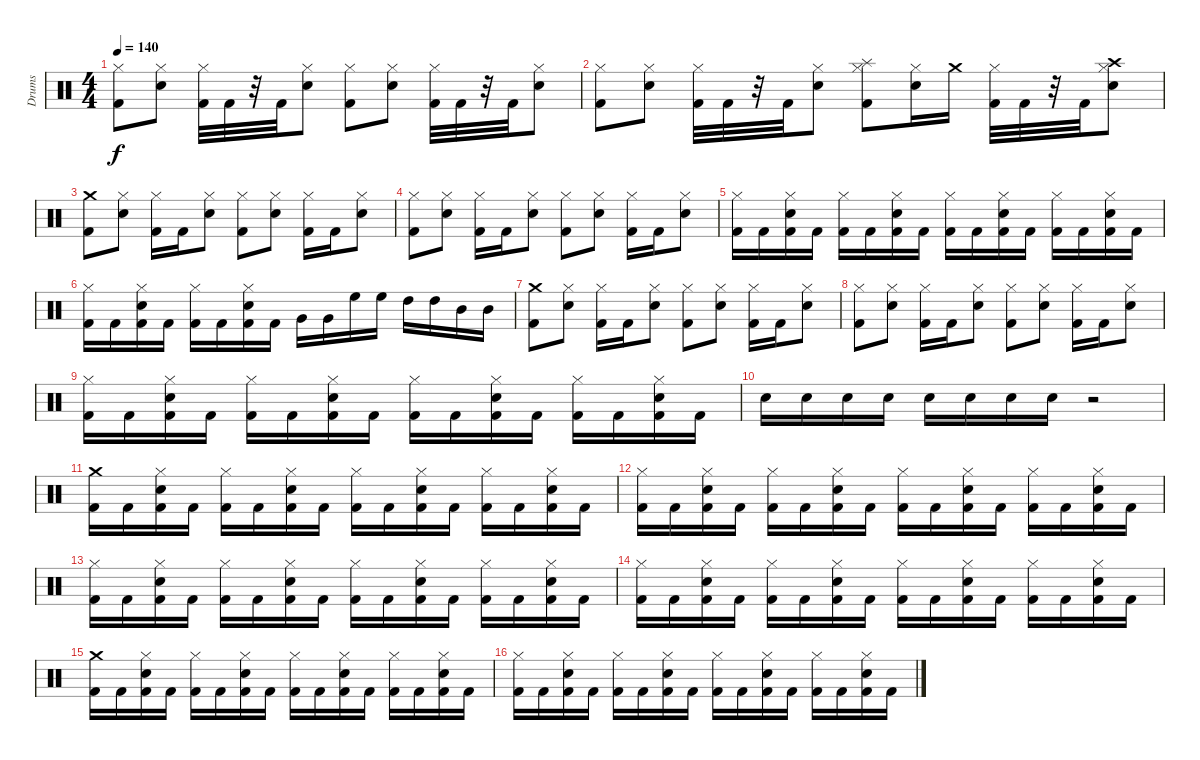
\track ("Drums" "Drums") {instrument percussion}
\staff {score}
\articulation defaults
\ts (4 4)
\tempo 140
\clef neutral
\ks c
("Hi-Hat (closed)" "Kick (hit) 2").8{dy f} ("Hi-Hat (closed)" "Electric Snare (hit)").8 ("Hi-Hat (closed)" "Kick (hit) 2").32 "Kick (hit) 2".32 r.32 "Kick (hit) 2".32 ("Hi-Hat (closed)" "Electric Snare (hit)").8 ("Hi-Hat (closed)" "Kick (hit) 2").8 ("Hi-Hat (closed)" "Electric Snare (hit)").8 ("Hi-Hat (closed)" "Kick (hit) 2").32 "Kick (hit) 2".32 r.32 "Kick (hit) 2".32 ("Hi-Hat (closed)" "Electric Snare (hit)").8 |
("Hi-Hat (closed)" "Kick (hit) 2").8 ("Hi-Hat (closed)" "Electric Snare (hit)").8 ("Hi-Hat (closed)" "Kick (hit) 2").32 "Kick (hit) 2".32 r.32 "Kick (hit) 2".32 ("Hi-Hat (closed)" "Electric Snare (hit)").8 ("Splash (hit)" "Hi-Hat (closed)" "Kick (hit) 2").8 ("Hi-Hat (closed)" "Electric Snare (hit)").16 "Crash medium (hit)".16 ("Hi-Hat (closed)" "Kick (hit) 2").32 "Kick (hit) 2".32 r.32 "Kick (hit) 2".32 ("Crash high (hit)" "Hi-Hat (closed)" "Electric Snare (hit)").8 |
("Crash medium (hit)" "Kick (hit) 2").8 ("Hi-Hat (closed)" "Electric Snare (hit)").8 ("Hi-Hat (closed)" "Kick (hit) 2").16 "Kick (hit) 2".16 ("Hi-Hat (closed)" "Electric Snare (hit)").8 ("Hi-Hat (closed)" "Kick (hit) 2").8 ("Hi-Hat (closed)" "Electric Snare (hit)").8 ("Hi-Hat (closed)" "Kick (hit) 2").16 "Kick (hit) 2".16 ("Hi-Hat (closed)" "Electric Snare (hit)").8 |
("Hi-Hat (closed)" "Kick (hit) 2").8 ("Hi-Hat (closed)" "Electric Snare (hit)").8 ("Hi-Hat (closed)" "Kick (hit) 2").16 "Kick (hit) 2".16 ("Hi-Hat (closed)" "Electric Snare (hit)").8 ("Hi-Hat (closed)" "Kick (hit) 2").8 ("Hi-Hat (closed)" "Electric Snare (hit)").8 ("Hi-Hat (closed)" "Kick (hit) 2").16 "Kick (hit) 2".16 ("Hi-Hat (closed)" "Electric Snare (hit)").8 |
("Hi-Hat (closed)" "Kick (hit) 2").16 "Kick (hit) 2".16 ("Hi-Hat (closed)" "Electric Snare (hit)" "Kick (hit) 2").16 "Kick (hit) 2".16 ("Hi-Hat (closed)" "Kick (hit) 2").16 "Kick (hit) 2".16 ("Hi-Hat (closed)" "Electric Snare (hit)" "Kick (hit) 2").16 "Kick (hit) 2".16 ("Hi-Hat (closed)" "Kick (hit) 2").16 "Kick (hit) 2".16 ("Hi-Hat (closed)" "Electric Snare (hit)" "Kick (hit) 2").16 "Kick (hit) 2".16 ("Hi-Hat (closed)" "Kick (hit) 2").16 "Kick (hit) 2".16 ("Hi-Hat (closed)" "Electric Snare (hit)" "Kick (hit) 2").16 "Kick (hit) 2".16 |
("Hi-Hat (closed)" "Kick (hit) 2").16 "Kick (hit) 2".16 ("Hi-Hat (closed)" "Electric Snare (hit)" "Kick (hit) 2").16 "Kick (hit) 2".16 ("Hi-Hat (closed)" "Kick (hit) 2").16 "Kick (hit) 2".16 ("Hi-Hat (closed)" "Electric Snare (hit)" "Kick (hit) 2").16 "Kick (hit) 2".16 "Very Low Tom (hit)".16 "Very Low Tom (hit)".16 "High Floor Tom (hit)".16 "High Floor Tom (hit)".16 "High Tom (hit)".16 "High Tom (hit)".16 "Mid Tom (hit)".16 "Mid Tom (hit)".16 |
("Crash medium (hit)" "Kick (hit) 2").8 ("Hi-Hat (closed)" "Electric Snare (hit)").8 ("Hi-Hat (closed)" "Kick (hit) 2").16 "Kick (hit) 2".16 ("Hi-Hat (closed)" "Electric Snare (hit)").8 ("Hi-Hat (closed)" "Kick (hit) 2").8 ("Hi-Hat (closed)" "Electric Snare (hit)").8 ("Hi-Hat (closed)" "Kick (hit) 2").16 "Kick (hit) 2".16 ("Hi-Hat (closed)" "Electric Snare (hit)").8 |
("Hi-Hat (closed)" "Kick (hit) 2").8 ("Hi-Hat (closed)" "Electric Snare (hit)").8 ("Hi-Hat (closed)" "Kick (hit) 2").16 "Kick (hit) 2".16 ("Hi-Hat (closed)" "Electric Snare (hit)").8 ("Hi-Hat (closed)" "Kick (hit) 2").8 ("Hi-Hat (closed)" "Electric Snare (hit)").8 ("Hi-Hat (closed)" "Kick (hit) 2").16 "Kick (hit) 2".16 ("Hi-Hat (closed)" "Electric Snare (hit)").8 |
("Hi-Hat (closed)" "Kick (hit) 2").16 "Kick (hit) 2".16 ("Hi-Hat (closed)" "Electric Snare (hit)" "Kick (hit) 2").16 "Kick (hit) 2".16 ("Hi-Hat (closed)" "Kick (hit) 2").16 "Kick (hit) 2".16 ("Hi-Hat (closed)" "Electric Snare (hit)" "Kick (hit) 2").16 "Kick (hit) 2".16 ("Hi-Hat (closed)" "Kick (hit) 2").16 "Kick (hit) 2".16 ("Hi-Hat (closed)" "Electric Snare (hit)" "Kick (hit) 2").16 "Kick (hit) 2".16 ("Hi-Hat (closed)" "Kick (hit) 2").16 "Kick (hit) 2".16 ("Hi-Hat (closed)" "Electric Snare (hit)" "Kick (hit) 2").16 "Kick (hit) 2".16 |
"Electric Snare (hit)".16 "Electric Snare (hit)".16 "Electric Snare (hit)".16 "Electric Snare (hit)".16 "Electric Snare (hit)".16 "Electric Snare (hit)".16 "Electric Snare (hit)".16 "Electric Snare (hit)".16 r.2 |
("Crash medium (hit)" "Kick (hit) 2").16 "Kick (hit) 2".16 ("Hi-Hat (closed)" "Electric Snare (hit)" "Kick (hit) 2").16 "Kick (hit) 2".16 ("Hi-Hat (closed)" "Kick (hit) 2").16 "Kick (hit) 2".16 ("Hi-Hat (closed)" "Electric Snare (hit)" "Kick (hit) 2").16 "Kick (hit) 2".16 ("Hi-Hat (closed)" "Kick (hit) 2").16 "Kick (hit) 2".16 ("Hi-Hat (closed)" "Electric Snare (hit)" "Kick (hit) 2").16 "Kick (hit) 2".16 ("Hi-Hat (closed)" "Kick (hit) 2").16 "Kick (hit) 2".16 ("Hi-Hat (closed)" "Electric Snare (hit)" "Kick (hit) 2").16 "Kick (hit) 2".16 |
("Hi-Hat (closed)" "Kick (hit) 2").16 "Kick (hit) 2".16 ("Hi-Hat (closed)" "Electric Snare (hit)" "Kick (hit) 2").16 "Kick (hit) 2".16 ("Hi-Hat (closed)" "Kick (hit) 2").16 "Kick (hit) 2".16 ("Hi-Hat (closed)" "Electric Snare (hit)" "Kick (hit) 2").16 "Kick (hit) 2".16 ("Hi-Hat (closed)" "Kick (hit) 2").16 "Kick (hit) 2".16 ("Hi-Hat (closed)" "Electric Snare (hit)" "Kick (hit) 2").16 "Kick (hit) 2".16 ("Hi-Hat (closed)" "Kick (hit) 2").16 "Kick (hit) 2".16 ("Hi-Hat (closed)" "Electric Snare (hit)" "Kick (hit) 2").16 "Kick (hit) 2".16 |
("Hi-Hat (closed)" "Kick (hit) 2").16 "Kick (hit) 2".16 ("Hi-Hat (closed)" "Electric Snare (hit)" "Kick (hit) 2").16 "Kick (hit) 2".16 ("Hi-Hat (closed)" "Kick (hit) 2").16 "Kick (hit) 2".16 ("Hi-Hat (closed)" "Electric Snare (hit)" "Kick (hit) 2").16 "Kick (hit) 2".16 ("Hi-Hat (closed)" "Kick (hit) 2").16 "Kick (hit) 2".16 ("Hi-Hat (closed)" "Electric Snare (hit)" "Kick (hit) 2").16 "Kick (hit) 2".16 ("Hi-Hat (closed)" "Kick (hit) 2").16 "Kick (hit) 2".16 ("Hi-Hat (closed)" "Electric Snare (hit)" "Kick (hit) 2").16 "Kick (hit) 2".16 |
("Hi-Hat (closed)" "Kick (hit) 2").16 "Kick (hit) 2".16 ("Hi-Hat (closed)" "Electric Snare (hit)" "Kick (hit) 2").16 "Kick (hit) 2".16 ("Hi-Hat (closed)" "Kick (hit) 2").16 "Kick (hit) 2".16 ("Hi-Hat (closed)" "Electric Snare (hit)" "Kick (hit) 2").16 "Kick (hit) 2".16 ("Hi-Hat (closed)" "Kick (hit) 2").16 "Kick (hit) 2".16 ("Hi-Hat (closed)" "Electric Snare (hit)" "Kick (hit) 2").16 "Kick (hit) 2".16 ("Hi-Hat (closed)" "Kick (hit) 2").16 "Kick (hit) 2".16 ("Hi-Hat (closed)" "Electric Snare (hit)" "Kick (hit) 2").16 "Kick (hit) 2".16 |
("Crash medium (hit)" "Kick (hit) 2").16 "Kick (hit) 2".16 ("Hi-Hat (closed)" "Electric Snare (hit)" "Kick (hit) 2").16 "Kick (hit) 2".16 ("Hi-Hat (closed)" "Kick (hit) 2").16 "Kick (hit) 2".16 ("Hi-Hat (closed)" "Electric Snare (hit)" "Kick (hit) 2").16 "Kick (hit) 2".16 ("Hi-Hat (closed)" "Kick (hit) 2").16 "Kick (hit) 2".16 ("Hi-Hat (closed)" "Electric Snare (hit)" "Kick (hit) 2").16 "Kick (hit) 2".16 ("Hi-Hat (closed)" "Kick (hit) 2").16 "Kick (hit) 2".16 ("Hi-Hat (closed)" "Electric Snare (hit)" "Kick (hit) 2").16 "Kick (hit) 2".16 |
("Hi-Hat (closed)" "Kick (hit) 2").16 "Kick (hit) 2".16 ("Hi-Hat (closed)" "Electric Snare (hit)" "Kick (hit) 2").16 "Kick (hit) 2".16 ("Hi-Hat (closed)" "Kick (hit) 2").16 "Kick (hit) 2".16 ("Hi-Hat (closed)" "Electric Snare (hit)" "Kick (hit) 2").16 "Kick (hit) 2".16 ("Hi-Hat (closed)" "Kick (hit) 2").16 "Kick (hit) 2".16 ("Hi-Hat (closed)" "Electric Snare (hit)" "Kick (hit) 2").16 "Kick (hit) 2".16 ("Hi-Hat (closed)" "Kick (hit) 2").16 "Kick (hit) 2".16 ("Hi-Hat (closed)" "Electric Snare (hit)" "Kick (hit) 2").16 "Kick (hit) 2".16
